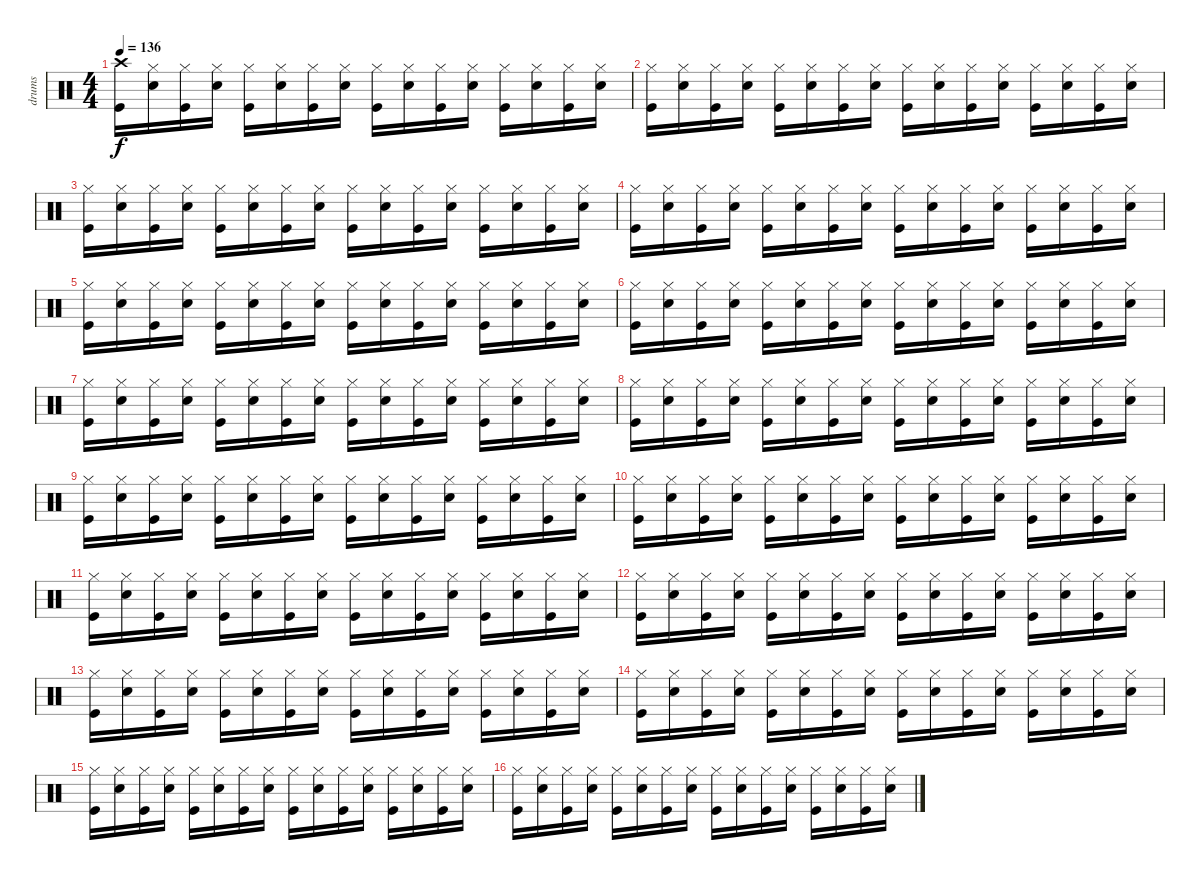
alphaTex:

\track ("drums" "drums") {instrument percussion}
\staff {score}
\articulation defaults
\ts (4 4)
\tempo 136
\clef neutral
\ks c
("Crash high (hit)" "Kick (hit)").16{dy f} ("Hi-Hat (closed)" "Snare (hit) 2").16 ("Hi-Hat (closed)" "Kick (hit)").16 ("Hi-Hat (closed)" "Snare (hit) 2").16 ("Hi-Hat (closed)" "Kick (hit)").16 ("Hi-Hat (closed)" "Snare (hit) 2").16 ("Hi-Hat (closed)" "Kick (hit)").16 ("Hi-Hat (closed)" "Snare (hit) 2").16 ("Hi-Hat (closed)" "Kick (hit)").16 ("Hi-Hat (closed)" "Snare (hit) 2").16 ("Hi-Hat (closed)" "Kick (hit)").16 ("Hi-Hat (closed)" "Snare (hit) 2").16 ("Hi-Hat (closed)" "Kick (hit)").16 ("Hi-Hat (closed)" "Snare (hit) 2").16 ("Hi-Hat (closed)" "Kick (hit)").16 ("Hi-Hat (closed)" "Snare (hit) 2").16 |
("Hi-Hat (closed)" "Kick (hit)").16 ("Hi-Hat (closed)" "Snare (hit) 2").16 ("Hi-Hat (closed)" "Kick (hit)").16 ("Hi-Hat (closed)" "Snare (hit) 2").16 ("Hi-Hat (closed)" "Kick (hit)").16 ("Hi-Hat (closed)" "Snare (hit) 2").16 ("Hi-Hat (closed)" "Kick (hit)").16 ("Hi-Hat (closed)" "Snare (hit) 2").16 ("Hi-Hat (closed)" "Kick (hit)").16 ("Hi-Hat (closed)" "Snare (hit) 2").16 ("Hi-Hat (closed)" "Kick (hit)").16 ("Hi-Hat (closed)" "Snare (hit) 2").16 ("Hi-Hat (closed)" "Kick (hit)").16 ("Hi-Hat (closed)" "Snare (hit) 2").16 ("Hi-Hat (closed)" "Kick (hit)").16 ("Hi-Hat (closed)" "Snare (hit) 2").16 |
("Hi-Hat (closed)" "Kick (hit)").16 ("Hi-Hat (closed)" "Snare (hit) 2").16 ("Hi-Hat (closed)" "Kick (hit)").16 ("Hi-Hat (closed)" "Snare (hit) 2").16 ("Hi-Hat (closed)" "Kick (hit)").16 ("Hi-Hat (closed)" "Snare (hit) 2").16 ("Hi-Hat (closed)" "Kick (hit)").16 ("Hi-Hat (closed)" "Snare (hit) 2").16 ("Hi-Hat (closed)" "Kick (hit)").16 ("Hi-Hat (closed)" "Snare (hit) 2").16 ("Hi-Hat (closed)" "Kick (hit)").16 ("Hi-Hat (closed)" "Snare (hit) 2").16 ("Hi-Hat (closed)" "Kick (hit)").16 ("Hi-Hat (closed)" "Snare (hit) 2").16 ("Hi-Hat (closed)" "Kick (hit)").16 ("Hi-Hat (closed)" "Snare (hit) 2").16 |
("Hi-Hat (closed)" "Kick (hit)").16 ("Hi-Hat (closed)" "Snare (hit) 2").16 ("Hi-Hat (closed)" "Kick (hit)").16 ("Hi-Hat (closed)" "Snare (hit) 2").16 ("Hi-Hat (closed)" "Kick (hit)").16 ("Hi-Hat (closed)" "Snare (hit) 2").16 ("Hi-Hat (closed)" "Kick (hit)").16 ("Hi-Hat (closed)" "Snare (hit) 2").16 ("Hi-Hat (closed)" "Kick (hit)").16 ("Hi-Hat (closed)" "Snare (hit) 2").16 ("Hi-Hat (closed)" "Kick (hit)").16 ("Hi-Hat (closed)" "Snare (hit) 2").16 ("Hi-Hat (closed)" "Kick (hit)").16 ("Hi-Hat (closed)" "Snare (hit) 2").16 ("Hi-Hat (closed)" "Kick (hit)").16 ("Hi-Hat (closed)" "Snare (hit) 2").16 |
("Hi-Hat (closed)" "Kick (hit)").16 ("Hi-Hat (closed)" "Snare (hit) 2").16 ("Hi-Hat (closed)" "Kick (hit)").16 ("Hi-Hat (closed)" "Snare (hit) 2").16 ("Hi-Hat (closed)" "Kick (hit)").16 ("Hi-Hat (closed)" "Snare (hit) 2").16 ("Hi-Hat (closed)" "Kick (hit)").16 ("Hi-Hat (closed)" "Snare (hit) 2").16 ("Hi-Hat (closed)" "Kick (hit)").16 ("Hi-Hat (closed)" "Snare (hit) 2").16 ("Hi-Hat (closed)" "Kick (hit)").16 ("Hi-Hat (closed)" "Snare (hit) 2").16 ("Hi-Hat (closed)" "Kick (hit)").16 ("Hi-Hat (closed)" "Snare (hit) 2").16 ("Hi-Hat (closed)" "Kick (hit)").16 ("Hi-Hat (closed)" "Snare (hit) 2").16 |
("Hi-Hat (closed)" "Kick (hit)").16 ("Hi-Hat (closed)" "Snare (hit) 2").16 ("Hi-Hat (closed)" "Kick (hit)").16 ("Hi-Hat (closed)" "Snare (hit) 2").16 ("Hi-Hat (closed)" "Kick (hit)").16 ("Hi-Hat (closed)" "Snare (hit) 2").16 ("Hi-Hat (closed)" "Kick (hit)").16 ("Hi-Hat (closed)" "Snare (hit) 2").16 ("Hi-Hat (closed)" "Kick (hit)").16 ("Hi-Hat (closed)" "Snare (hit) 2").16 ("Hi-Hat (closed)" "Kick (hit)").16 ("Hi-Hat (closed)" "Snare (hit) 2").16 ("Hi-Hat (closed)" "Kick (hit)").16 ("Hi-Hat (closed)" "Snare (hit) 2").16 ("Hi-Hat (closed)" "Kick (hit)").16 ("Hi-Hat (closed)" "Snare (hit) 2").16 |
("Hi-Hat (closed)" "Kick (hit)").16 ("Hi-Hat (closed)" "Snare (hit) 2").16 ("Hi-Hat (closed)" "Kick (hit)").16 ("Hi-Hat (closed)" "Snare (hit) 2").16 ("Hi-Hat (closed)" "Kick (hit)").16 ("Hi-Hat (closed)" "Snare (hit) 2").16 ("Hi-Hat (closed)" "Kick (hit)").16 ("Hi-Hat (closed)" "Snare (hit) 2").16 ("Hi-Hat (closed)" "Kick (hit)").16 ("Hi-Hat (closed)" "Snare (hit) 2").16 ("Hi-Hat (closed)" "Kick (hit)").16 ("Hi-Hat (closed)" "Snare (hit) 2").16 ("Hi-Hat (closed)" "Kick (hit)").16 ("Hi-Hat (closed)" "Snare (hit) 2").16 ("Hi-Hat (closed)" "Kick (hit)").16 ("Hi-Hat (closed)" "Snare (hit) 2").16 |
("Hi-Hat (closed)" "Kick (hit)").16 ("Hi-Hat (closed)" "Snare (hit) 2").16 ("Hi-Hat (closed)" "Kick (hit)").16 ("Hi-Hat (closed)" "Snare (hit) 2").16 ("Hi-Hat (closed)" "Kick (hit)").16 ("Hi-Hat (closed)" "Snare (hit) 2").16 ("Hi-Hat (closed)" "Kick (hit)").16 ("Hi-Hat (closed)" "Snare (hit) 2").16 ("Hi-Hat (closed)" "Kick (hit)").16 ("Hi-Hat (closed)" "Snare (hit) 2").16 ("Hi-Hat (closed)" "Kick (hit)").16 ("Hi-Hat (closed)" "Snare (hit) 2").16 ("Hi-Hat (closed)" "Kick (hit)").16 ("Hi-Hat (closed)" "Snare (hit) 2").16 ("Hi-Hat (closed)" "Kick (hit)").16 ("Hi-Hat (closed)" "Snare (hit) 2").16 |
("Hi-Hat (closed)" "Kick (hit)").16 ("Hi-Hat (closed)" "Snare (hit) 2").16 ("Hi-Hat (closed)" "Kick (hit)").16 ("Hi-Hat (closed)" "Snare (hit) 2").16 ("Hi-Hat (closed)" "Kick (hit)").16 ("Hi-Hat (closed)" "Snare (hit) 2").16 ("Hi-Hat (closed)" "Kick (hit)").16 ("Hi-Hat (closed)" "Snare (hit) 2").16 ("Hi-Hat (closed)" "Kick (hit)").16 ("Hi-Hat (closed)" "Snare (hit) 2").16 ("Hi-Hat (closed)" "Kick (hit)").16 ("Hi-Hat (closed)" "Snare (hit) 2").16 ("Hi-Hat (closed)" "Kick (hit)").16 ("Hi-Hat (closed)" "Snare (hit) 2").16 ("Hi-Hat (closed)" "Kick (hit)").16 ("Hi-Hat (closed)" "Snare (hit) 2").16 |
("Hi-Hat (closed)" "Kick (hit)").16 ("Hi-Hat (closed)" "Snare (hit) 2").16 ("Hi-Hat (closed)" "Kick (hit)").16 ("Hi-Hat (closed)" "Snare (hit) 2").16 ("Hi-Hat (closed)" "Kick (hit)").16 ("Hi-Hat (closed)" "Snare (hit) 2").16 ("Hi-Hat (closed)" "Kick (hit)").16 ("Hi-Hat (closed)" "Snare (hit) 2").16 ("Hi-Hat (closed)" "Kick (hit)").16 ("Hi-Hat (closed)" "Snare (hit) 2").16 ("Hi-Hat (closed)" "Kick (hit)").16 ("Hi-Hat (closed)" "Snare (hit) 2").16 ("Hi-Hat (closed)" "Kick (hit)").16 ("Hi-Hat (closed)" "Snare (hit) 2").16 ("Hi-Hat (closed)" "Kick (hit)").16 ("Hi-Hat (closed)" "Snare (hit) 2").16 |
("Hi-Hat (closed)" "Kick (hit)").16 ("Hi-Hat (closed)" "Snare (hit) 2").16 ("Hi-Hat (closed)" "Kick (hit)").16 ("Hi-Hat (closed)" "Snare (hit) 2").16 ("Hi-Hat (closed)" "Kick (hit)").16 ("Hi-Hat (closed)" "Snare (hit) 2").16 ("Hi-Hat (closed)" "Kick (hit)").16 ("Hi-Hat (closed)" "Snare (hit) 2").16 ("Hi-Hat (closed)" "Kick (hit)").16 ("Hi-Hat (closed)" "Snare (hit) 2").16 ("Hi-Hat (closed)" "Kick (hit)").16 ("Hi-Hat (closed)" "Snare (hit) 2").16 ("Hi-Hat (closed)" "Kick (hit)").16 ("Hi-Hat (closed)" "Snare (hit) 2").16 ("Hi-Hat (closed)" "Kick (hit)").16 ("Hi-Hat (closed)" "Snare (hit) 2").16 |
("Hi-Hat (closed)" "Kick (hit)").16 ("Hi-Hat (closed)" "Snare (hit) 2").16 ("Hi-Hat (closed)" "Kick (hit)").16 ("Hi-Hat (closed)" "Snare (hit) 2").16 ("Hi-Hat (closed)" "Kick (hit)").16 ("Hi-Hat (closed)" "Snare (hit) 2").16 ("Hi-Hat (closed)" "Kick (hit)").16 ("Hi-Hat (closed)" "Snare (hit) 2").16 ("Hi-Hat (closed)" "Kick (hit)").16 ("Hi-Hat (closed)" "Snare (hit) 2").16 ("Hi-Hat (closed)" "Kick (hit)").16 ("Hi-Hat (closed)" "Snare (hit) 2").16 ("Hi-Hat (closed)" "Kick (hit)").16 ("Hi-Hat (closed)" "Snare (hit) 2").16 ("Hi-Hat (closed)" "Kick (hit)").16 ("Hi-Hat (closed)" "Snare (hit) 2").16 |
("Hi-Hat (closed)" "Kick (hit)").16 ("Hi-Hat (closed)" "Snare (hit) 2").16 ("Hi-Hat (closed)" "Kick (hit)").16 ("Hi-Hat (closed)" "Snare (hit) 2").16 ("Hi-Hat (closed)" "Kick (hit)").16 ("Hi-Hat (closed)" "Snare (hit) 2").16 ("Hi-Hat (closed)" "Kick (hit)").16 ("Hi-Hat (closed)" "Snare (hit) 2").16 ("Hi-Hat (closed)" "Kick (hit)").16 ("Hi-Hat (closed)" "Snare (hit) 2").16 ("Hi-Hat (closed)" "Kick (hit)").16 ("Hi-Hat (closed)" "Snare (hit) 2").16 ("Hi-Hat (closed)" "Kick (hit)").16 ("Hi-Hat (closed)" "Snare (hit) 2").16 ("Hi-Hat (closed)" "Kick (hit)").16 ("Hi-Hat (closed)" "Snare (hit) 2").16 |
("Hi-Hat (closed)" "Kick (hit)").16 ("Hi-Hat (closed)" "Snare (hit) 2").16 ("Hi-Hat (closed)" "Kick (hit)").16 ("Hi-Hat (closed)" "Snare (hit) 2").16 ("Hi-Hat (closed)" "Kick (hit)").16 ("Hi-Hat (closed)" "Snare (hit) 2").16 ("Hi-Hat (closed)" "Kick (hit)").16 ("Hi-Hat (closed)" "Snare (hit) 2").16 ("Hi-Hat (closed)" "Kick (hit)").16 ("Hi-Hat (closed)" "Snare (hit) 2").16 ("Hi-Hat (closed)" "Kick (hit)").16 ("Hi-Hat (closed)" "Snare (hit) 2").16 ("Hi-Hat (closed)" "Kick (hit)").16 ("Hi-Hat (closed)" "Snare (hit) 2").16 ("Hi-Hat (closed)" "Kick (hit)").16 ("Hi-Hat (closed)" "Snare (hit) 2").16 |
("Hi-Hat (closed)" "Kick (hit)").16 ("Hi-Hat (closed)" "Snare (hit) 2").16 ("Hi-Hat (closed)" "Kick (hit)").16 ("Hi-Hat (closed)" "Snare (hit) 2").16 ("Hi-Hat (closed)" "Kick (hit)").16 ("Hi-Hat (closed)" "Snare (hit) 2").16 ("Hi-Hat (closed)" "Kick (hit)").16 ("Hi-Hat (closed)" "Snare (hit) 2").16 ("Hi-Hat (closed)" "Kick (hit)").16 ("Hi-Hat (closed)" "Snare (hit) 2").16 ("Hi-Hat (closed)" "Kick (hit)").16 ("Hi-Hat (closed)" "Snare (hit) 2").16 ("Hi-Hat (closed)" "Kick (hit)").16 ("Hi-Hat (closed)" "Snare (hit) 2").16 ("Hi-Hat (closed)" "Kick (hit)").16 ("Hi-Hat (closed)" "Snare (hit) 2").16 |
("Hi-Hat (closed)" "Kick (hit)").16 ("Hi-Hat (closed)" "Snare (hit) 2").16 ("Hi-Hat (closed)" "Kick (hit)").16 ("Hi-Hat (closed)" "Snare (hit) 2").16 ("Hi-Hat (closed)" "Kick (hit)").16 ("Hi-Hat (closed)" "Snare (hit) 2").16 ("Hi-Hat (closed)" "Kick (hit)").16 ("Hi-Hat (closed)" "Snare (hit) 2").16 ("Hi-Hat (closed)" "Kick (hit)").16 ("Hi-Hat (closed)" "Snare (hit) 2").16 ("Hi-Hat (closed)" "Kick (hit)").16 ("Hi-Hat (closed)" "Snare (hit) 2").16 ("Hi-Hat (closed)" "Kick (hit)").16 ("Hi-Hat (closed)" "Snare (hit) 2").16 ("Hi-Hat (closed)" "Kick (hit)").16 ("Hi-Hat (closed)" "Snare (hit) 2").16
